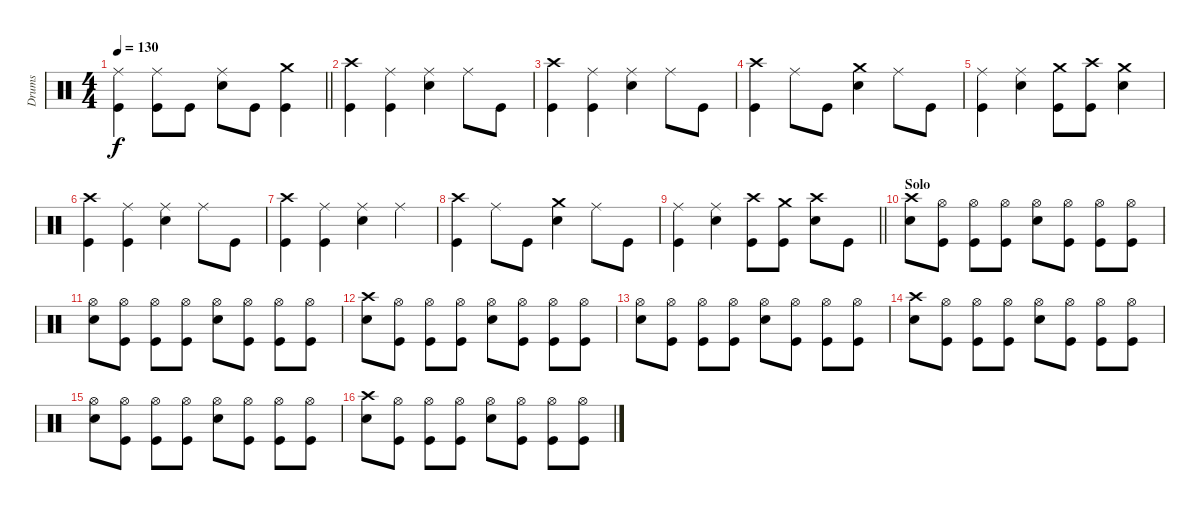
\track ("Drums" "Drums") {instrument percussion}
\staff {score}
\articulation defaults
\ts (4 4)
\tempo 130
\clef neutral
\barLineRight lightlight
\ks c
("Ride (middle)" "Kick (hit)").4{dy f} ("Ride (middle)" "Kick (hit)").8 "Kick (hit)".8 ("Ride (middle)" "Snare (hit) 2").8 "Kick (hit)".8 ("Crash medium (hit)" "Kick (hit)").4 |
("Crash high (hit)" "Kick (hit)").4 ("Ride (middle)" "Kick (hit)").4 ("Ride (middle)" "Snare (hit) 2").4 "Ride (middle)".8 "Kick (hit)".8 |
("Crash high (hit)" "Kick (hit)").4 ("Ride (middle)" "Kick (hit)").4 ("Ride (middle)" "Snare (hit) 2").4 "Ride (middle)".8 "Kick (hit)".8 |
("Crash high (hit)" "Kick (hit)").4 "Ride (middle)".8 "Kick (hit)".8 ("Crash medium (hit)" "Snare (hit) 2").4 "Ride (middle)".8 "Kick (hit)".8 |
("Ride (middle)" "Kick (hit)").4 ("Ride (middle)" "Snare (hit) 2").4 ("Crash medium (hit)" "Kick (hit)").8 ("Crash high (hit)" "Kick (hit)").8 ("Crash medium (hit)" "Snare (hit) 2").4 |
("Crash high (hit)" "Kick (hit)").4 ("Ride (middle)" "Kick (hit)").4 ("Ride (middle)" "Snare (hit) 2").4 "Ride (middle)".8 "Kick (hit)".8 |
("Crash high (hit)" "Kick (hit)").4 ("Ride (middle)" "Kick (hit)").4 ("Ride (middle)" "Snare (hit) 2").4 "Ride (middle)".4 |
("Crash high (hit)" "Kick (hit)").4 "Ride (middle)".8 "Kick (hit)".8 ("Crash medium (hit)" "Snare (hit) 2").4 "Ride (middle)".8 "Kick (hit)".8 |
\barLineRight lightlight
("Ride (middle)" "Kick (hit)").4 ("Ride (middle)" "Snare (hit) 2").4 ("Crash high (hit)" "Kick (hit)").8 ("Crash medium (hit)" "Kick (hit)").8 ("Crash high (hit)" "Snare (hit) 2").8 "Kick (hit)".8 |
\section ("" "Solo")
("Crash high (hit)" "Snare (hit) 2").8 ("Hi-Hat (open)" "Kick (hit)").8 ("Hi-Hat (open)" "Kick (hit)").8 ("Hi-Hat (open)" "Kick (hit)").8 ("Hi-Hat (open)" "Snare (hit) 2").8 ("Hi-Hat (open)" "Kick (hit)").8 ("Hi-Hat (open)" "Kick (hit)").8 ("Hi-Hat (open)" "Kick (hit)").8 |
("Hi-Hat (open)" "Snare (hit) 2").8 ("Hi-Hat (open)" "Kick (hit)").8 ("Hi-Hat (open)" "Kick (hit)").8 ("Hi-Hat (open)" "Kick (hit)").8 ("Hi-Hat (open)" "Snare (hit) 2").8 ("Hi-Hat (open)" "Kick (hit)").8 ("Hi-Hat (open)" "Kick (hit)").8 ("Hi-Hat (open)" "Kick (hit)").8 |
("Crash high (hit)" "Snare (hit) 2").8 ("Hi-Hat (open)" "Kick (hit)").8 ("Hi-Hat (open)" "Kick (hit)").8 ("Hi-Hat (open)" "Kick (hit)").8 ("Hi-Hat (open)" "Snare (hit) 2").8 ("Hi-Hat (open)" "Kick (hit)").8 ("Hi-Hat (open)" "Kick (hit)").8 ("Hi-Hat (open)" "Kick (hit)").8 |
("Hi-Hat (open)" "Snare (hit) 2").8 ("Hi-Hat (open)" "Kick (hit)").8 ("Hi-Hat (open)" "Kick (hit)").8 ("Hi-Hat (open)" "Kick (hit)").8 ("Hi-Hat (open)" "Snare (hit) 2").8 ("Hi-Hat (open)" "Kick (hit)").8 ("Hi-Hat (open)" "Kick (hit)").8 ("Hi-Hat (open)" "Kick (hit)").8 |
("Crash high (hit)" "Snare (hit) 2").8 ("Hi-Hat (open)" "Kick (hit)").8 ("Hi-Hat (open)" "Kick (hit)").8 ("Hi-Hat (open)" "Kick (hit)").8 ("Hi-Hat (open)" "Snare (hit) 2").8 ("Hi-Hat (open)" "Kick (hit)").8 ("Hi-Hat (open)" "Kick (hit)").8 ("Hi-Hat (open)" "Kick (hit)").8 |
("Hi-Hat (open)" "Snare (hit) 2").8 ("Hi-Hat (open)" "Kick (hit)").8 ("Hi-Hat (open)" "Kick (hit)").8 ("Hi-Hat (open)" "Kick (hit)").8 ("Hi-Hat (open)" "Snare (hit) 2").8 ("Hi-Hat (open)" "Kick (hit)").8 ("Hi-Hat (open)" "Kick (hit)").8 ("Hi-Hat (open)" "Kick (hit)").8 |
("Crash high (hit)" "Snare (hit) 2").8 ("Hi-Hat (open)" "Kick (hit)").8 ("Hi-Hat (open)" "Kick (hit)").8 ("Hi-Hat (open)" "Kick (hit)").8 ("Hi-Hat (open)" "Snare (hit) 2").8 ("Hi-Hat (open)" "Kick (hit)").8 ("Hi-Hat (open)" "Kick (hit)").8 ("Hi-Hat (open)" "Kick (hit)").8
